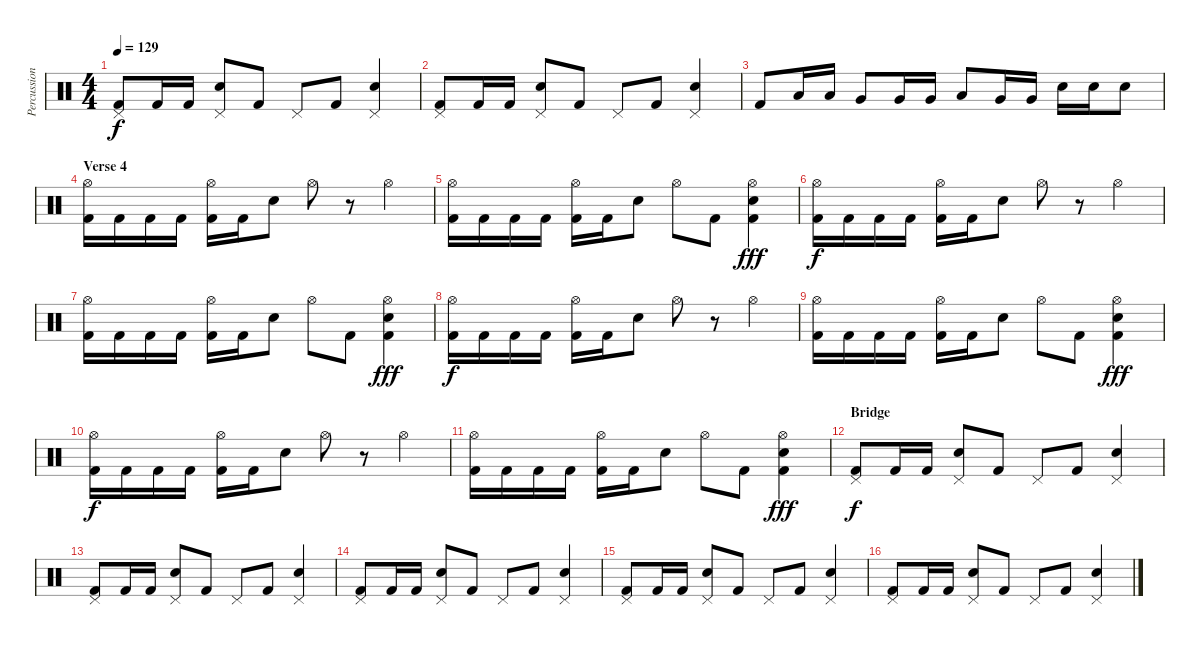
\track ("Percussion" "Percussion") {instrument percussion}
\staff {score}
\articulation defaults
\ts (4 4)
\tempo 129
\clef neutral
\ks c
("Pedal Hi-Hat (hit)" "Kick (hit) 2").8{dy f} "Kick (hit) 2".16 "Kick (hit) 2".16 ("Pedal Hi-Hat (hit)" "Electric Snare (hit)").8 "Kick (hit) 2".8 "Pedal Hi-Hat (hit)".8 "Kick (hit) 2".8 ("Pedal Hi-Hat (hit)" "Electric Snare (hit)").4 |
("Pedal Hi-Hat (hit)" "Kick (hit) 2").8 "Kick (hit) 2".16 "Kick (hit) 2".16 ("Pedal Hi-Hat (hit)" "Electric Snare (hit)").8 "Kick (hit) 2".8 "Pedal Hi-Hat (hit)".8 "Kick (hit) 2".8 ("Pedal Hi-Hat (hit)" "Electric Snare (hit)").4 |
"Kick (hit) 2".8 "Low Floor Tom (hit)".16 "Low Floor Tom (hit)".16 "Very Low Tom (hit)".8 "Very Low Tom (hit)".16 "Very Low Tom (hit)".16 "Low Tom (hit)".8 "Very Low Tom (hit)".16 "Very Low Tom (hit)".16 "Electric Snare (hit)".16 "Electric Snare (hit)".16 "Electric Snare (hit)".8 |
\section ("" "Verse 4")
("Hi-Hat (open)" "Kick (hit) 2").16 "Kick (hit) 2".16 "Kick (hit) 2".16 "Kick (hit) 2".16 ("Hi-Hat (open)" "Kick (hit) 2").16 "Kick (hit) 2".16 "Electric Snare (hit)".8 "Hi-Hat (open)".8 r.8 "Hi-Hat (open)".4 |
("Hi-Hat (open)" "Kick (hit) 2").16 "Kick (hit) 2".16 "Kick (hit) 2".16 "Kick (hit) 2".16 ("Hi-Hat (open)" "Kick (hit) 2").16 "Kick (hit) 2".16 "Electric Snare (hit)".8 "Hi-Hat (open)".8 "Kick (hit) 2".8 ("Hi-Hat (open)" "Electric Snare (hit)" "Kick (hit) 2").4{dy fff} |
("Hi-Hat (open)" "Kick (hit) 2").16{dy f} "Kick (hit) 2".16 "Kick (hit) 2".16 "Kick (hit) 2".16 ("Hi-Hat (open)" "Kick (hit) 2").16 "Kick (hit) 2".16 "Electric Snare (hit)".8 "Hi-Hat (open)".8 r.8 "Hi-Hat (open)".4 |
("Hi-Hat (open)" "Kick (hit) 2").16 "Kick (hit) 2".16 "Kick (hit) 2".16 "Kick (hit) 2".16 ("Hi-Hat (open)" "Kick (hit) 2").16 "Kick (hit) 2".16 "Electric Snare (hit)".8 "Hi-Hat (open)".8 "Kick (hit) 2".8 ("Hi-Hat (open)" "Electric Snare (hit)" "Kick (hit) 2").4{dy fff} |
("Hi-Hat (open)" "Kick (hit) 2").16{dy f} "Kick (hit) 2".16 "Kick (hit) 2".16 "Kick (hit) 2".16 ("Hi-Hat (open)" "Kick (hit) 2").16 "Kick (hit) 2".16 "Electric Snare (hit)".8 "Hi-Hat (open)".8 r.8 "Hi-Hat (open)".4 |
("Hi-Hat (open)" "Kick (hit) 2").16 "Kick (hit) 2".16 "Kick (hit) 2".16 "Kick (hit) 2".16 ("Hi-Hat (open)" "Kick (hit) 2").16 "Kick (hit) 2".16 "Electric Snare (hit)".8 "Hi-Hat (open)".8 "Kick (hit) 2".8 ("Hi-Hat (open)" "Electric Snare (hit)" "Kick (hit) 2").4{dy fff} |
("Hi-Hat (open)" "Kick (hit) 2").16{dy f} "Kick (hit) 2".16 "Kick (hit) 2".16 "Kick (hit) 2".16 ("Hi-Hat (open)" "Kick (hit) 2").16 "Kick (hit) 2".16 "Electric Snare (hit)".8 "Hi-Hat (open)".8 r.8 "Hi-Hat (open)".4 |
("Hi-Hat (open)" "Kick (hit) 2").16 "Kick (hit) 2".16 "Kick (hit) 2".16 "Kick (hit) 2".16 ("Hi-Hat (open)" "Kick (hit) 2").16 "Kick (hit) 2".16 "Electric Snare (hit)".8 "Hi-Hat (open)".8 "Kick (hit) 2".8 ("Hi-Hat (open)" "Electric Snare (hit)" "Kick (hit) 2").4{dy fff} |
\section ("" "Bridge")
("Pedal Hi-Hat (hit)" "Kick (hit) 2").8{dy f} "Kick (hit) 2".16 "Kick (hit) 2".16 ("Pedal Hi-Hat (hit)" "Electric Snare (hit)").8 "Kick (hit) 2".8 "Pedal Hi-Hat (hit)".8 "Kick (hit) 2".8 ("Pedal Hi-Hat (hit)" "Electric Snare (hit)").4 |
("Pedal Hi-Hat (hit)" "Kick (hit) 2").8 "Kick (hit) 2".16 "Kick (hit) 2".16 ("Pedal Hi-Hat (hit)" "Electric Snare (hit)").8 "Kick (hit) 2".8 "Pedal Hi-Hat (hit)".8 "Kick (hit) 2".8 ("Pedal Hi-Hat (hit)" "Electric Snare (hit)").4 |
("Pedal Hi-Hat (hit)" "Kick (hit) 2").8 "Kick (hit) 2".16 "Kick (hit) 2".16 ("Pedal Hi-Hat (hit)" "Electric Snare (hit)").8 "Kick (hit) 2".8 "Pedal Hi-Hat (hit)".8 "Kick (hit) 2".8 ("Pedal Hi-Hat (hit)" "Electric Snare (hit)").4 |
("Pedal Hi-Hat (hit)" "Kick (hit) 2").8 "Kick (hit) 2".16 "Kick (hit) 2".16 ("Pedal Hi-Hat (hit)" "Electric Snare (hit)").8 "Kick (hit) 2".8 "Pedal Hi-Hat (hit)".8 "Kick (hit) 2".8 ("Pedal Hi-Hat (hit)" "Electric Snare (hit)").4 |
("Pedal Hi-Hat (hit)" "Kick (hit) 2").8 "Kick (hit) 2".16 "Kick (hit) 2".16 ("Pedal Hi-Hat (hit)" "Electric Snare (hit)").8 "Kick (hit) 2".8 "Pedal Hi-Hat (hit)".8 "Kick (hit) 2".8 ("Pedal Hi-Hat (hit)" "Electric Snare (hit)").4
